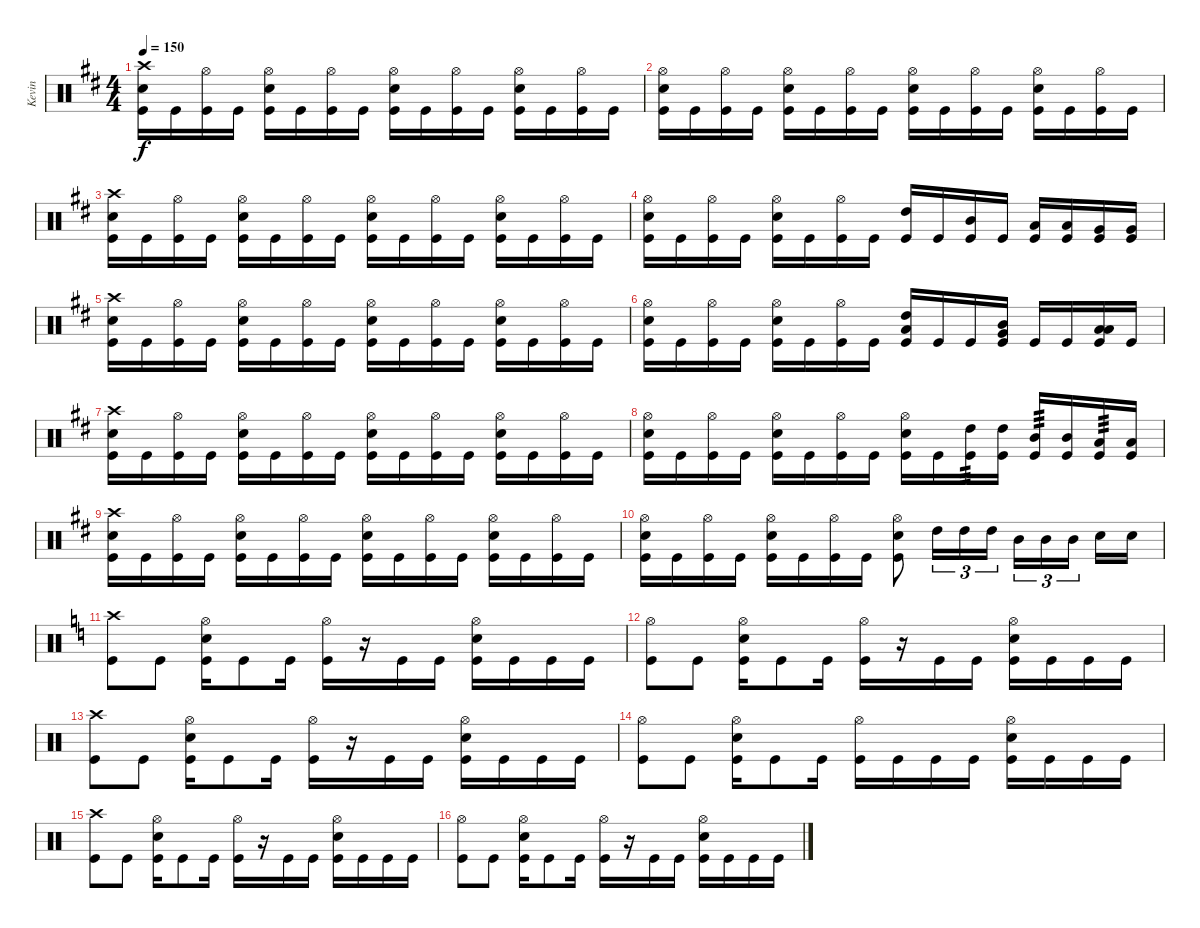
\track ("Kevin" "Kevin") {instrument percussion}
\staff {score}
\articulation defaults
\ts (4 4)
\tempo 150
\clef neutral
\ks d
("Crash high (hit)" "Snare (hit) 2" "Kick (hit)").16{dy f} "Kick (hit)".16 ("Hi-Hat (open)" "Kick (hit)").16 "Kick (hit)".16 ("Hi-Hat (open)" "Snare (hit) 2" "Kick (hit)").16 "Kick (hit)".16 ("Hi-Hat (open)" "Kick (hit)").16 "Kick (hit)".16 ("Hi-Hat (open)" "Snare (hit) 2" "Kick (hit)").16 "Kick (hit)".16 ("Hi-Hat (open)" "Kick (hit)").16 "Kick (hit)".16 ("Hi-Hat (open)" "Snare (hit) 2" "Kick (hit)").16 "Kick (hit)".16 ("Hi-Hat (open)" "Kick (hit)").16 "Kick (hit)".16 |
("Hi-Hat (open)" "Snare (hit) 2" "Kick (hit)").16 "Kick (hit)".16 ("Hi-Hat (open)" "Kick (hit)").16 "Kick (hit)".16 ("Hi-Hat (open)" "Snare (hit) 2" "Kick (hit)").16 "Kick (hit)".16 ("Hi-Hat (open)" "Kick (hit)").16 "Kick (hit)".16 ("Hi-Hat (open)" "Snare (hit) 2" "Kick (hit)").16 "Kick (hit)".16 ("Hi-Hat (open)" "Kick (hit)").16 "Kick (hit)".16 ("Hi-Hat (open)" "Snare (hit) 2" "Kick (hit)").16 "Kick (hit)".16 ("Hi-Hat (open)" "Kick (hit)").16 "Kick (hit)".16 |
("Crash high (hit)" "Snare (hit) 2" "Kick (hit)").16 "Kick (hit)".16 ("Hi-Hat (open)" "Kick (hit)").16 "Kick (hit)".16 ("Hi-Hat (open)" "Snare (hit) 2" "Kick (hit)").16 "Kick (hit)".16 ("Hi-Hat (open)" "Kick (hit)").16 "Kick (hit)".16 ("Hi-Hat (open)" "Snare (hit) 2" "Kick (hit)").16 "Kick (hit)".16 ("Hi-Hat (open)" "Kick (hit)").16 "Kick (hit)".16 ("Hi-Hat (open)" "Snare (hit) 2" "Kick (hit)").16 "Kick (hit)".16 ("Hi-Hat (open)" "Kick (hit)").16 "Kick (hit)".16 |
("Hi-Hat (open)" "Snare (hit) 2" "Kick (hit)").16 "Kick (hit)".16 ("Hi-Hat (open)" "Kick (hit)").16 "Kick (hit)".16 ("Hi-Hat (open)" "Snare (hit) 2" "Kick (hit)").16 "Kick (hit)".16 ("Hi-Hat (open)" "Kick (hit)").16 "Kick (hit)".16 ("High Tom (hit)" "Kick (hit)").16 "Kick (hit)".16 ("Mid Tom (hit)" "Kick (hit)").16 "Kick (hit)".16 ("Low Tom (hit)" "Kick (hit)").16 ("Low Tom (hit)" "Kick (hit)").16 ("Very Low Tom (hit)" "Kick (hit)").16 ("Very Low Tom (hit)" "Kick (hit)").16 |
("Crash high (hit)" "Snare (hit) 2" "Kick (hit)").16 "Kick (hit)".16 ("Hi-Hat (open)" "Kick (hit)").16 "Kick (hit)".16 ("Hi-Hat (open)" "Snare (hit) 2" "Kick (hit)").16 "Kick (hit)".16 ("Hi-Hat (open)" "Kick (hit)").16 "Kick (hit)".16 ("Hi-Hat (open)" "Snare (hit) 2" "Kick (hit)").16 "Kick (hit)".16 ("Hi-Hat (open)" "Kick (hit)").16 "Kick (hit)".16 ("Hi-Hat (open)" "Snare (hit) 2" "Kick (hit)").16 "Kick (hit)".16 ("Hi-Hat (open)" "Kick (hit)").16 "Kick (hit)".16 |
("Hi-Hat (open)" "Snare (hit) 2" "Kick (hit)").16 "Kick (hit)".16 ("Hi-Hat (open)" "Kick (hit)").16 "Kick (hit)".16 ("Hi-Hat (open)" "Snare (hit) 2" "Kick (hit)").16 "Kick (hit)".16 ("Hi-Hat (open)" "Kick (hit)").16 "Kick (hit)".16 ("High Tom (hit)" "Low Tom (hit)" "Kick (hit)").16 "Kick (hit)".16 "Kick (hit)".16 ("Mid Tom (hit)" "Very Low Tom (hit)" "Kick (hit)").16 "Kick (hit)".16 "Kick (hit)".16 ("Low Tom (hit)" "Low Floor Tom (hit)" "Kick (hit)").16 "Kick (hit)".16 |
("Crash high (hit)" "Snare (hit) 2" "Kick (hit)").16 "Kick (hit)".16 ("Hi-Hat (open)" "Kick (hit)").16 "Kick (hit)".16 ("Hi-Hat (open)" "Snare (hit) 2" "Kick (hit)").16 "Kick (hit)".16 ("Hi-Hat (open)" "Kick (hit)").16 "Kick (hit)".16 ("Hi-Hat (open)" "Snare (hit) 2" "Kick (hit)").16 "Kick (hit)".16 ("Hi-Hat (open)" "Kick (hit)").16 "Kick (hit)".16 ("Hi-Hat (open)" "Snare (hit) 2" "Kick (hit)").16 "Kick (hit)".16 ("Hi-Hat (open)" "Kick (hit)").16 "Kick (hit)".16 |
("Hi-Hat (open)" "Snare (hit) 2" "Kick (hit)").16 "Kick (hit)".16 ("Hi-Hat (open)" "Kick (hit)").16 "Kick (hit)".16 ("Hi-Hat (open)" "Snare (hit) 2" "Kick (hit)").16 "Kick (hit)".16 ("Hi-Hat (open)" "Kick (hit)").16 "Kick (hit)".16 ("Hi-Hat (open)" "Snare (hit) 2" "Kick (hit)").16 "Kick (hit)".16 ("High Tom (hit)" "Kick (hit)").16{tp 3} ("High Tom (hit)" "Kick (hit)").16 ("Mid Tom (hit)" "Kick (hit)").16{tp 3} ("Mid Tom (hit)" "Kick (hit)").16 ("Low Tom (hit)" "Kick (hit)").16{tp 3} ("Low Tom (hit)" "Kick (hit)").16 |
("Crash high (hit)" "Snare (hit) 2" "Kick (hit)").16 "Kick (hit)".16 ("Hi-Hat (open)" "Kick (hit)").16 "Kick (hit)".16 ("Hi-Hat (open)" "Snare (hit) 2" "Kick (hit)").16 "Kick (hit)".16 ("Hi-Hat (open)" "Kick (hit)").16 "Kick (hit)".16 ("Hi-Hat (open)" "Snare (hit) 2" "Kick (hit)").16 "Kick (hit)".16 ("Hi-Hat (open)" "Kick (hit)").16 "Kick (hit)".16 ("Hi-Hat (open)" "Snare (hit) 2" "Kick (hit)").16 "Kick (hit)".16 ("Hi-Hat (open)" "Kick (hit)").16 "Kick (hit)".16 |
("Hi-Hat (open)" "Snare (hit) 2" "Kick (hit)").16 "Kick (hit)".16 ("Hi-Hat (open)" "Kick (hit)").16 "Kick (hit)".16 ("Hi-Hat (open)" "Snare (hit) 2" "Kick (hit)").16 "Kick (hit)".16 ("Hi-Hat (open)" "Kick (hit)").16 "Kick (hit)".16 ("Hi-Hat (open)" "Snare (hit) 2" "Kick (hit)").8 "High Tom (hit)".16{tu (3 2)} "High Tom (hit)".16{tu (3 2)} "High Tom (hit)".16{tu (3 2)} "Mid Tom (hit)".16{tu (3 2)} "Mid Tom (hit)".16{tu (3 2)} "Mid Tom (hit)".16{tu (3 2) beam splitsecondary} "Snare (hit) 2".16 "Snare (hit) 2".16 |
\ks c
("Crash high (hit)" "Kick (hit)").8 "Kick (hit)".8 ("Hi-Hat (open)" "Snare (hit) 2" "Kick (hit)").16 "Kick (hit)".8 "Kick (hit)".16 ("Hi-Hat (open)" "Kick (hit)").16 r.16 "Kick (hit)".16 "Kick (hit)".16 ("Hi-Hat (open)" "Snare (hit) 2" "Kick (hit)").16 "Kick (hit)".16 "Kick (hit)".16 "Kick (hit)".16 |
("Hi-Hat (open)" "Kick (hit)").8 "Kick (hit)".8 ("Hi-Hat (open)" "Snare (hit) 2" "Kick (hit)").16 "Kick (hit)".8 "Kick (hit)".16 ("Hi-Hat (open)" "Kick (hit)").16 r.16 "Kick (hit)".16 "Kick (hit)".16 ("Hi-Hat (open)" "Snare (hit) 2" "Kick (hit)").16 "Kick (hit)".16 "Kick (hit)".16 "Kick (hit)".16 |
("Crash high (hit)" "Kick (hit)").8 "Kick (hit)".8 ("Hi-Hat (open)" "Snare (hit) 2" "Kick (hit)").16 "Kick (hit)".8 "Kick (hit)".16 ("Hi-Hat (open)" "Kick (hit)").16 r.16 "Kick (hit)".16 "Kick (hit)".16 ("Hi-Hat (open)" "Snare (hit) 2" "Kick (hit)").16 "Kick (hit)".16 "Kick (hit)".16 "Kick (hit)".16 |
("Hi-Hat (open)" "Kick (hit)").8 "Kick (hit)".8 ("Hi-Hat (open)" "Snare (hit) 2" "Kick (hit)").16 "Kick (hit)".8 "Kick (hit)".16 ("Hi-Hat (open)" "Kick (hit)").16 "Kick (hit)".16 "Kick (hit)".16 "Kick (hit)".16 ("Hi-Hat (open)" "Snare (hit) 2" "Kick (hit)").16 "Kick (hit)".16 "Kick (hit)".16 "Kick (hit)".16 |
("Crash high (hit)" "Kick (hit)").8 "Kick (hit)".8 ("Hi-Hat (open)" "Snare (hit) 2" "Kick (hit)").16 "Kick (hit)".8 "Kick (hit)".16 ("Hi-Hat (open)" "Kick (hit)").16 r.16 "Kick (hit)".16 "Kick (hit)".16 ("Hi-Hat (open)" "Snare (hit) 2" "Kick (hit)").16 "Kick (hit)".16 "Kick (hit)".16 "Kick (hit)".16 |
("Hi-Hat (open)" "Kick (hit)").8 "Kick (hit)".8 ("Hi-Hat (open)" "Snare (hit) 2" "Kick (hit)").16 "Kick (hit)".8 "Kick (hit)".16 ("Hi-Hat (open)" "Kick (hit)").16 r.16 "Kick (hit)".16 "Kick (hit)".16 ("Hi-Hat (open)" "Snare (hit) 2" "Kick (hit)").16 "Kick (hit)".16 "Kick (hit)".16 "Kick (hit)".16
